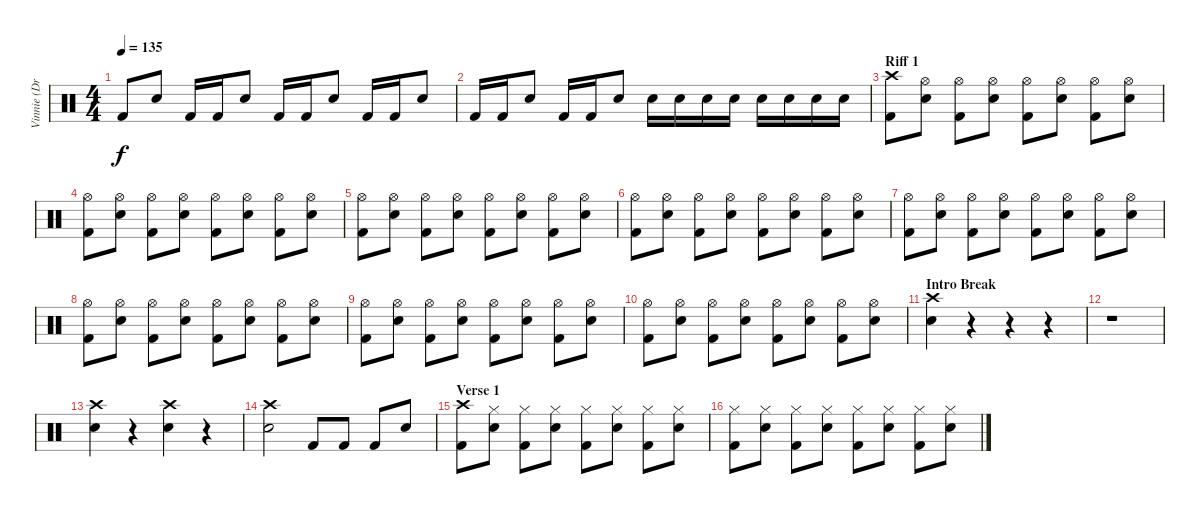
\track ("Vinnie (Drums)" "Vinnie (Dr") {instrument percussion}
\staff {score}
\articulation defaults
\ts (4 4)
\tempo 135
\clef neutral
\ks c "Kick (hit) 2".8{dy f} "Snare (hit) 2".8 "Kick (hit) 2".16 "Kick (hit) 2".16 "Snare (hit) 2".8 "Kick (hit) 2".16 "Kick (hit) 2".16 "Snare (hit) 2".8 "Kick (hit) 2".16 "Kick (hit) 2".16 "Snare (hit) 2".8
|
"Kick (hit) 2".16 "Kick (hit) 2".16 "Snare (hit) 2".8 "Kick (hit) 2".16 "Kick (hit) 2".16 "Snare (hit) 2".8 "Snare (hit) 2".16 "Snare (hit) 2".16 "Snare (hit) 2".16 "Snare (hit) 2".16 "Snare (hit) 2".16 "Snare (hit) 2".16 "Snare (hit) 2".16 "Snare (hit) 2".16 |
\section ("" "Riff 1")
("Crash high (hit)" "Kick (hit) 2").8 ("Hi-Hat (open)" "Snare (hit) 2").8 ("Hi-Hat (open)" "Kick (hit) 2").8 ("Hi-Hat (open)" "Snare (hit) 2").8 ("Hi-Hat (open)" "Kick (hit) 2").8 ("Hi-Hat (open)" "Snare (hit) 2").8 ("Hi-Hat (open)" "Kick (hit) 2").8 ("Hi-Hat (open)" "Snare (hit) 2").8 |
("Hi-Hat (open)" "Kick (hit) 2").8 ("Hi-Hat (open)" "Snare (hit) 2").8 ("Hi-Hat (open)" "Kick (hit) 2").8 ("Hi-Hat (open)" "Snare (hit) 2").8 ("Hi-Hat (open)" "Kick (hit) 2").8 ("Hi-Hat (open)" "Snare (hit) 2").8 ("Hi-Hat (open)" "Kick (hit) 2").8 ("Hi-Hat (open)" "Snare (hit) 2").8 |
("Hi-Hat (open)" "Kick (hit) 2").8 ("Hi-Hat (open)" "Snare (hit) 2").8 ("Hi-Hat (open)" "Kick (hit) 2").8 ("Hi-Hat (open)" "Snare (hit) 2").8 ("Hi-Hat (open)" "Kick (hit) 2").8 ("Hi-Hat (open)" "Snare (hit) 2").8 ("Hi-Hat (open)" "Kick (hit) 2").8 ("Hi-Hat (open)" "Snare (hit) 2").8 |
("Hi-Hat (open)" "Kick (hit) 2").8 ("Hi-Hat (open)" "Snare (hit) 2").8 ("Hi-Hat (open)" "Kick (hit) 2").8 ("Hi-Hat (open)" "Snare (hit) 2").8 ("Hi-Hat (open)" "Kick (hit) 2").8 ("Hi-Hat (open)" "Snare (hit) 2").8 ("Hi-Hat (open)" "Kick (hit) 2").8 ("Hi-Hat (open)" "Snare (hit) 2").8 |
("Hi-Hat (open)" "Kick (hit) 2").8 ("Hi-Hat (open)" "Snare (hit) 2").8 ("Hi-Hat (open)" "Kick (hit) 2").8 ("Hi-Hat (open)" "Snare (hit) 2").8 ("Hi-Hat (open)" "Kick (hit) 2").8 ("Hi-Hat (open)" "Snare (hit) 2").8 ("Hi-Hat (open)" "Kick (hit) 2").8 ("Hi-Hat (open)" "Snare (hit) 2").8 |
("Hi-Hat (open)" "Kick (hit) 2").8 ("Hi-Hat (open)" "Snare (hit) 2").8 ("Hi-Hat (open)" "Kick (hit) 2").8 ("Hi-Hat (open)" "Snare (hit) 2").8 ("Hi-Hat (open)" "Kick (hit) 2").8 ("Hi-Hat (open)" "Snare (hit) 2").8 ("Hi-Hat (open)" "Kick (hit) 2").8 ("Hi-Hat (open)" "Snare (hit) 2").8 |
("Hi-Hat (open)" "Kick (hit) 2").8 ("Hi-Hat (open)" "Snare (hit) 2").8 ("Hi-Hat (open)" "Kick (hit) 2").8 ("Hi-Hat (open)" "Snare (hit) 2").8 ("Hi-Hat (open)" "Kick (hit) 2").8 ("Hi-Hat (open)" "Snare (hit) 2").8 ("Hi-Hat (open)" "Kick (hit) 2").8 ("Hi-Hat (open)" "Snare (hit) 2").8 |
("Hi-Hat (open)" "Kick (hit) 2").8 ("Hi-Hat (open)" "Snare (hit) 2").8 ("Hi-Hat (open)" "Kick (hit) 2").8 ("Hi-Hat (open)" "Snare (hit) 2").8 ("Hi-Hat (open)" "Kick (hit) 2").8 ("Hi-Hat (open)" "Snare (hit) 2").8 ("Hi-Hat (open)" "Kick (hit) 2").8 ("Hi-Hat (open)" "Snare (hit) 2").8 |
\section ("" "Intro Break")
("Crash high (hit)" "Snare (hit) 2").4 r.4 r.4 r.4 |
r.1 |
("Crash high (hit)" "Snare (hit) 2").4 r.4 ("Crash high (hit)" "Snare (hit) 2").4 r.4 |
("Crash high (hit)" "Snare (hit) 2").2 "Kick (hit) 2".8 "Kick (hit) 2".8 "Kick (hit) 2".8 "Snare (hit) 2".8 |
\section ("" "Verse 1")
("Crash high (hit)" "Kick (hit) 2").8 ("Hi-Hat (closed)" "Snare (hit) 2").8 ("Hi-Hat (closed)" "Kick (hit) 2").8 ("Hi-Hat (closed)" "Snare (hit) 2").8 ("Hi-Hat (closed)" "Kick (hit) 2").8 ("Hi-Hat (closed)" "Snare (hit) 2").8 ("Hi-Hat (closed)" "Kick (hit) 2").8 ("Hi-Hat (closed)" "Snare (hit) 2").8 |
("Hi-Hat (closed)" "Kick (hit) 2").8 ("Hi-Hat (closed)" "Snare (hit) 2").8 ("Hi-Hat (closed)" "Kick (hit) 2").8 ("Hi-Hat (closed)" "Snare (hit) 2").8 ("Hi-Hat (closed)" "Kick (hit) 2").8 ("Hi-Hat (closed)" "Snare (hit) 2").8 ("Hi-Hat (closed)" "Kick (hit) 2").8 ("Hi-Hat (closed)" "Snare (hit) 2").8
